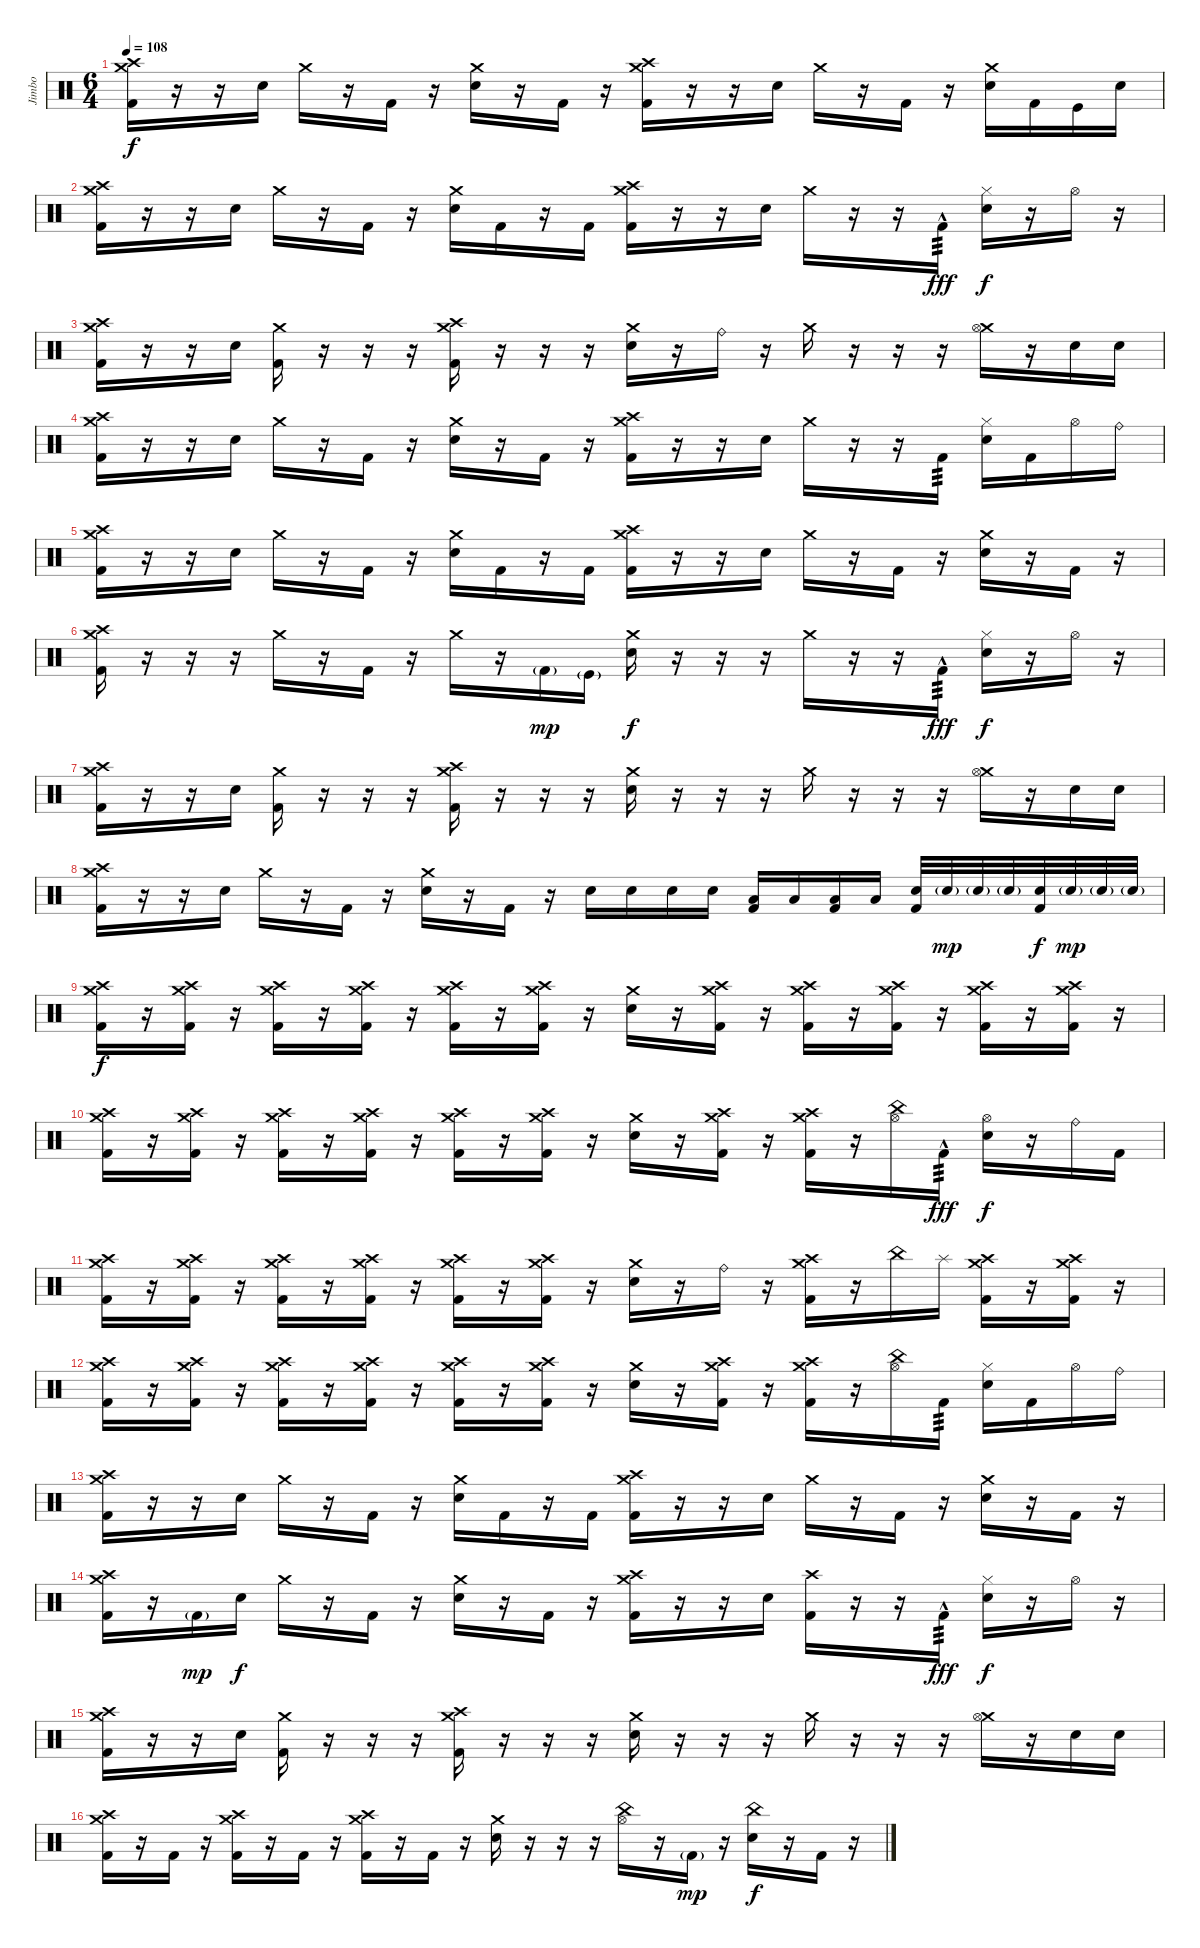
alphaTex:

\track ("Jimbo" "Jimbo") {instrument percussion}
\staff
\articulation defaults
\ts (6 4)
\tempo 108
\clef neutral
\ks c
("Kick (hit) 2" "Crash medium (hit)" "Crash high (hit)").16{dy f} r.16 r.16 "Electric Snare (hit)".16 "Crash medium (hit)".16 r.16 "Kick (hit) 2".16 r.16 ("Crash medium (hit)" "Electric Snare (hit)").16 r.16 "Kick (hit) 2".16 r.16 ("Kick (hit) 2" "Crash medium (hit)" "Crash high (hit)").16 r.16 r.16 "Electric Snare (hit)".16 "Crash medium (hit)".16 r.16 "Kick (hit) 2".16 r.16 ("Crash medium (hit)" "Electric Snare (hit)").16 "Kick (hit) 2".16 "Kick (hit)".16 "Electric Snare (hit)".16 |
("Kick (hit) 2" "Crash medium (hit)" "Crash high (hit)").16 r.16 r.16 "Electric Snare (hit)".16 "Crash medium (hit)".16 r.16 "Kick (hit) 2".16 r.16 ("Crash medium (hit)" "Electric Snare (hit)").16 "Kick (hit) 2".16 r.16 "Kick (hit) 2".16 ("Kick (hit) 2" "Crash medium (hit)" "Crash high (hit)").16 r.16 r.16 "Electric Snare (hit)".16 "Crash medium (hit)".16 r.16 r.16 "Kick (hit) 2"{hac}.16{tp 3 dy fff} ("Electric Snare (hit)" "Hi-Hat (closed)").16{dy f} r.16 "Hi-Hat (open)".16 r.16 |
("Kick (hit) 2" "Crash medium (hit)" "Crash high (hit)").16 r.16 r.16 "Electric Snare (hit)".16 ("Kick (hit) 2" "Crash medium (hit)").16 r.16 r.16 r.16 ("Kick (hit) 2" "Crash medium (hit)" "Crash high (hit)").16 r.16 r.16 r.16 ("Crash medium (hit)" "Electric Snare (hit)").16 r.16 "Ride (bell)".16 r.16 "Crash medium (hit)".16 r.16 r.16 r.16 ("Crash medium (hit)" "Hi-Hat (open)").16 r.16 "Electric Snare (hit)".16 "Electric Snare (hit)".16 |
("Kick (hit) 2" "Crash medium (hit)" "Crash high (hit)").16 r.16 r.16 "Electric Snare (hit)".16 "Crash medium (hit)".16 r.16 "Kick (hit) 2".16 r.16 ("Crash medium (hit)" "Electric Snare (hit)").16 r.16 "Kick (hit) 2".16 r.16 ("Kick (hit) 2" "Crash medium (hit)" "Crash high (hit)").16 r.16 r.16 "Electric Snare (hit)".16 "Crash medium (hit)".16 r.16 r.16 "Kick (hit) 2".16{tp 3} ("Electric Snare (hit)" "Hi-Hat (closed)").16 "Kick (hit) 2".16 "Hi-Hat (open)".16 "Ride (bell)".16 |
("Kick (hit) 2" "Crash medium (hit)" "Crash high (hit)").16 r.16 r.16 "Electric Snare (hit)".16 "Crash medium (hit)".16 r.16 "Kick (hit) 2".16 r.16 ("Crash medium (hit)" "Electric Snare (hit)").16 "Kick (hit) 2".16 r.16 "Kick (hit) 2".16 ("Kick (hit) 2" "Crash medium (hit)" "Crash high (hit)").16 r.16 r.16 "Electric Snare (hit)".16 "Crash medium (hit)".16 r.16 "Kick (hit) 2".16 r.16 ("Crash medium (hit)" "Electric Snare (hit)").16 r.16 "Kick (hit) 2".16 r.16 |
("Kick (hit) 2" "Crash medium (hit)" "Crash high (hit)").16 r.16 r.16 r.16 "Crash medium (hit)".16 r.16 "Kick (hit) 2".16 r.16 "Crash medium (hit)".16 r.16 "Kick (hit) 2"{g}.16{dy mp} "Kick (hit)"{g}.16 ("Crash medium (hit)" "Electric Snare (hit)").16{dy f} r.16 r.16 r.16 "Crash medium (hit)".16 r.16 r.16 "Kick (hit) 2"{hac}.16{tp 3 dy fff} ("Electric Snare (hit)" "Hi-Hat (closed)").16{dy f} r.16 "Hi-Hat (open)".16 r.16 |
("Kick (hit) 2" "Crash medium (hit)" "Crash high (hit)").16 r.16 r.16 "Electric Snare (hit)".16 ("Kick (hit) 2" "Crash medium (hit)").16 r.16 r.16 r.16 ("Kick (hit) 2" "Crash medium (hit)" "Crash high (hit)").16 r.16 r.16 r.16 ("Crash medium (hit)" "Electric Snare (hit)").16 r.16 r.16 r.16 "Crash medium (hit)".16 r.16 r.16 r.16 ("Crash medium (hit)" "Hi-Hat (open)").16 r.16 "Electric Snare (hit)".16 "Electric Snare (hit)".16 |
("Kick (hit) 2" "Crash medium (hit)" "Crash high (hit)").16 r.16 r.16 "Electric Snare (hit)".16 "Crash medium (hit)".16 r.16 "Kick (hit) 2".16 r.16 ("Electric Snare (hit)" "Crash medium (hit)").16 r.16 "Kick (hit) 2".16 r.16 "Electric Snare (hit)".16 "Electric Snare (hit)".16 "Electric Snare (hit)".16 "Electric Snare (hit)".16 ("Kick (hit) 2" "Low Tom (hit)").16 "Low Tom (hit)".16 ("Kick (hit) 2" "Low Floor Tom (hit)").16 "Low Floor Tom (hit)".16 ("Kick (hit) 2" "Electric Snare (hit)").32 "Electric Snare (hit)"{g}.32{dy mp} "Electric Snare (hit)"{g}.32 "Electric Snare (hit)"{g}.32 ("Kick (hit) 2" "Electric Snare (hit)").32{dy f} "Electric Snare (hit)"{g}.32{dy mp} "Electric Snare (hit)"{g}.32 "Electric Snare (hit)"{g}.32 |
("Kick (hit) 2" "Crash medium (hit)" "Crash high (hit)").16{dy f} r.16 ("Kick (hit) 2" "Crash medium (hit)" "Crash high (hit)").16 r.16 ("Kick (hit) 2" "Crash medium (hit)" "Crash high (hit)").16 r.16 ("Kick (hit) 2" "Crash medium (hit)" "Crash high (hit)").16 r.16 ("Kick (hit) 2" "Crash medium (hit)" "Crash high (hit)").16 r.16 ("Kick (hit) 2" "Crash medium (hit)" "Crash high (hit)").16 r.16 ("Crash medium (hit)" "Electric Snare (hit)").16 r.16 ("Kick (hit) 2" "Crash medium (hit)" "Crash high (hit)").16 r.16 ("Kick (hit) 2" "Crash medium (hit)" "Crash high (hit)").16 r.16 ("Kick (hit) 2" "Crash medium (hit)" "Crash high (hit)").16 r.16 ("Kick (hit) 2" "Crash medium (hit)" "Crash high (hit)").16 r.16 ("Kick (hit) 2" "Crash medium (hit)" "Crash high (hit)").16 r.16 |
("Kick (hit) 2" "Crash medium (hit)" "Crash high (hit)").16 r.16 ("Kick (hit) 2" "Crash medium (hit)" "Crash high (hit)").16 r.16 ("Kick (hit) 2" "Crash medium (hit)" "Crash high (hit)").16 r.16 ("Kick (hit) 2" "Crash medium (hit)" "Crash high (hit)").16 r.16 ("Kick (hit) 2" "Crash medium (hit)" "Crash high (hit)").16 r.16 ("Kick (hit) 2" "Crash medium (hit)" "Crash high (hit)").16 r.16 ("Crash medium (hit)" "Electric Snare (hit)").16 r.16 ("Kick (hit) 2" "Crash medium (hit)" "Crash high (hit)").16 r.16 ("Kick (hit) 2" "Crash medium (hit)" "Crash high (hit)").16 r.16 ("Hi-Hat (open)" "China (hit)").16 "Kick (hit) 2"{hac}.16{tp 3 dy fff} ("Electric Snare (hit)" "Hi-Hat (open)").16{dy f} r.16 "Ride (bell)".16 "Kick (hit) 2".16 |
("Kick (hit) 2" "Crash medium (hit)" "Crash high (hit)").16 r.16 ("Kick (hit) 2" "Crash medium (hit)" "Crash high (hit)").16 r.16 ("Kick (hit) 2" "Crash medium (hit)" "Crash high (hit)").16 r.16 ("Kick (hit) 2" "Crash medium (hit)" "Crash high (hit)").16 r.16 ("Kick (hit) 2" "Crash medium (hit)" "Crash high (hit)").16 r.16 ("Kick (hit) 2" "Crash medium (hit)" "Crash high (hit)").16 r.16 ("Crash medium (hit)" "Electric Snare (hit)").16 r.16 "Ride (bell)".16 r.16 ("Kick (hit) 2" "Crash medium (hit)" "Crash high (hit)").16 r.16 "China (hit)".16 "Splash (hit)".16 ("Kick (hit) 2" "Crash medium (hit)" "Crash high (hit)").16 r.16 ("Kick (hit) 2" "Crash medium (hit)" "Crash high (hit)").16 r.16 |
("Kick (hit) 2" "Crash medium (hit)" "Crash high (hit)").16 r.16 ("Kick (hit) 2" "Crash high (hit)" "Crash medium (hit)").16 r.16 ("Kick (hit) 2" "Crash medium (hit)" "Crash high (hit)").16 r.16 ("Kick (hit) 2" "Crash medium (hit)" "Crash high (hit)").16 r.16 ("Kick (hit) 2" "Crash medium (hit)" "Crash high (hit)").16 r.16 ("Kick (hit) 2" "Crash medium (hit)" "Crash high (hit)").16 r.16 ("Crash medium (hit)" "Electric Snare (hit)").16 r.16 ("Kick (hit) 2" "Crash medium (hit)" "Crash high (hit)").16 r.16 ("Kick (hit) 2" "Crash medium (hit)" "Crash high (hit)").16 r.16 ("Hi-Hat (open)" "China (hit)").16 "Kick (hit) 2".16{tp 3} ("Electric Snare (hit)" "Hi-Hat (closed)").16 "Kick (hit) 2".16 "Hi-Hat (open)".16 "Ride (bell)".16 |
("Kick (hit) 2" "Crash medium (hit)" "Crash high (hit)").16 r.16 r.16 "Electric Snare (hit)".16 "Crash medium (hit)".16 r.16 "Kick (hit) 2".16 r.16 ("Crash medium (hit)" "Electric Snare (hit)").16 "Kick (hit) 2".16 r.16 "Kick (hit) 2".16 ("Kick (hit) 2" "Crash medium (hit)" "Crash high (hit)").16 r.16 r.16 "Electric Snare (hit)".16 "Crash medium (hit)".16 r.16 "Kick (hit) 2".16 r.16 ("Crash medium (hit)" "Electric Snare (hit)").16 r.16 "Kick (hit) 2".16 r.16 |
("Kick (hit) 2" "Crash medium (hit)" "Crash high (hit)").16 r.16 "Kick (hit) 2"{g}.16{dy mp} "Electric Snare (hit)".16{dy f} "Crash medium (hit)".16 r.16 "Kick (hit) 2".16 r.16 ("Crash medium (hit)" "Electric Snare (hit)").16 r.16 "Kick (hit) 2".16 r.16 ("Kick (hit) 2" "Crash medium (hit)" "Crash high (hit)").16 r.16 r.16 "Electric Snare (hit)".16 ("Kick (hit) 2" "Crash high (hit)").16 r.16 r.16 "Kick (hit) 2"{hac}.16{tp 3 dy fff} ("Electric Snare (hit)" "Hi-Hat (closed)").16{dy f} r.16 "Hi-Hat (open)".16 r.16 |
("Kick (hit) 2" "Crash medium (hit)" "Crash high (hit)").16 r.16 r.16 "Electric Snare (hit)".16 ("Kick (hit) 2" "Crash medium (hit)").16 r.16 r.16 r.16 ("Kick (hit) 2" "Crash medium (hit)" "Crash high (hit)").16 r.16 r.16 r.16 ("Crash medium (hit)" "Electric Snare (hit)").16 r.16 r.16 r.16 "Crash medium (hit)".16 r.16 r.16 r.16 ("Crash medium (hit)" "Hi-Hat (open)").16 r.16 "Electric Snare (hit)".16 "Electric Snare (hit)".16 |
("Kick (hit) 2" "Crash medium (hit)" "Crash high (hit)").16 r.16 "Kick (hit) 2".16 r.16 ("Kick (hit) 2" "Crash medium (hit)" "Crash high (hit)").16 r.16 "Kick (hit) 2".16 r.16 ("Kick (hit) 2" "Crash medium (hit)" "Crash high (hit)").16 r.16 "Kick (hit) 2".16 r.16 ("Electric Snare (hit)" "Crash medium (hit)").16 r.16 r.16 r.16 ("Hi-Hat (open)" "China (hit)").16 r.16 "Kick (hit) 2"{g}.16{dy mp} r.16 ("Electric Snare (hit)" "China (hit)").16{dy f} r.16 "Kick (hit) 2".16 r.16
